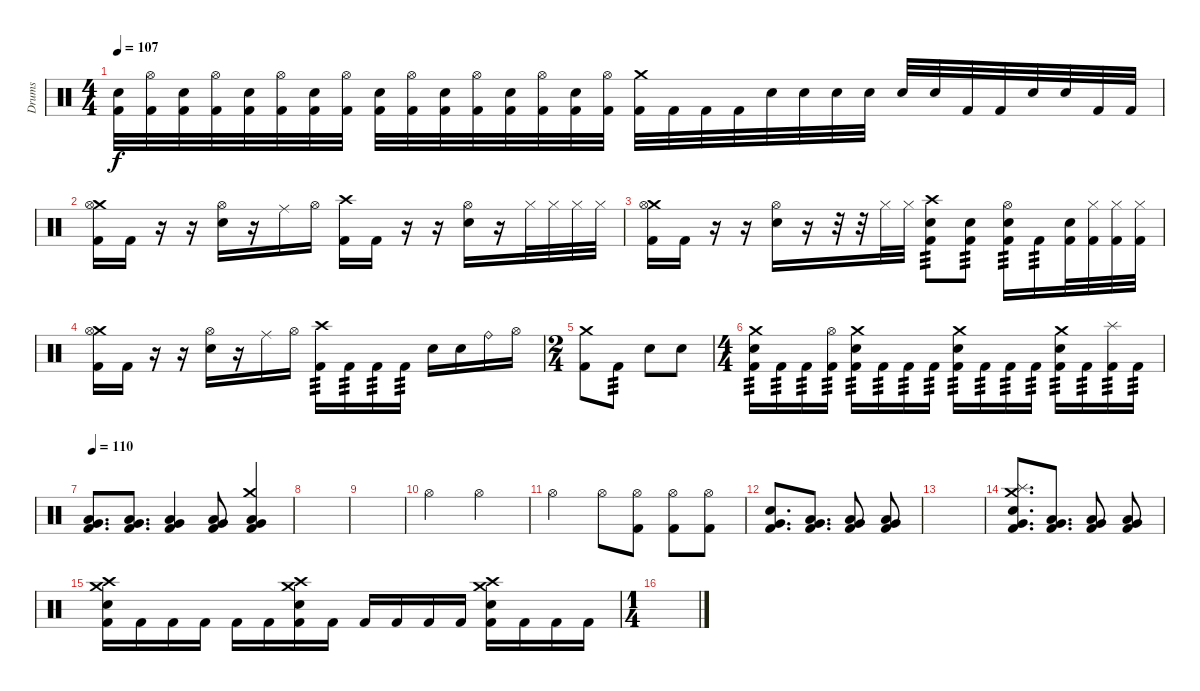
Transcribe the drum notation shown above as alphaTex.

\track ("Drums" "Drums") {instrument percussion}
\staff {score}
\articulation defaults
\ts (4 4)
\tempo 107
\clef neutral
\ks c
("Electric Snare (hit)" "Kick (hit) 2").32{dy f} ("Hi-Hat (open)" "Kick (hit) 2").32 ("Electric Snare (hit)" "Kick (hit) 2").32 ("Hi-Hat (open)" "Kick (hit) 2").32 ("Electric Snare (hit)" "Kick (hit) 2").32 ("Hi-Hat (open)" "Kick (hit) 2").32 ("Electric Snare (hit)" "Kick (hit) 2").32 ("Hi-Hat (open)" "Kick (hit) 2").32 ("Electric Snare (hit)" "Kick (hit) 2").32 ("Hi-Hat (open)" "Kick (hit) 2").32 ("Electric Snare (hit)" "Kick (hit) 2").32 ("Hi-Hat (open)" "Kick (hit) 2").32 ("Electric Snare (hit)" "Kick (hit) 2").32 ("Hi-Hat (open)" "Kick (hit) 2").32 ("Electric Snare (hit)" "Kick (hit) 2").32 ("Hi-Hat (open)" "Kick (hit) 2").32 ("Crash medium (hit)" "Kick (hit) 2").32 "Kick (hit) 2".32 "Kick (hit) 2".32 "Kick (hit) 2".32 "Electric Snare (hit)".32 "Electric Snare (hit)".32 "Electric Snare (hit)".32 "Electric Snare (hit)".32 "Electric Snare (hit)".32 "Electric Snare (hit)".32 "Kick (hit) 2".32 "Kick (hit) 2".32 "Electric Snare (hit)".32 "Electric Snare (hit)".32 "Kick (hit) 2".32 "Kick (hit) 2".32 |
("Crash medium (hit)" "Hi-Hat (open)" "Kick (hit) 2").16 "Kick (hit) 2".16 r.16 r.16 ("Hi-Hat (open)" "Electric Snare (hit)").16 r.16 "Ride (middle)".16 "Hi-Hat (open)".16 ("Crash high (hit)" "Kick (hit) 2").16 "Kick (hit) 2".16 r.16 r.16 ("Hi-Hat (open)" "Electric Snare (hit)").16 r.16 "Hi-Hat (closed)".32 "Hi-Hat (closed)".32 "Hi-Hat (closed)".32 "Hi-Hat (closed)".32 |
("Crash medium (hit)" "Hi-Hat (open)" "Kick (hit) 2").16 "Kick (hit) 2".16 r.16 r.16 ("Hi-Hat (open)" "Electric Snare (hit)").16 r.16 r.32 r.32 "Hi-Hat (closed)".32 "Hi-Hat (closed)".32 ("Crash high (hit)" "Electric Snare (hit)" "Kick (hit) 2").8{tp 3} ("Electric Snare (hit)" "Kick (hit) 2").8{tp 3} ("Hi-Hat (open)" "Electric Snare (hit)" "Kick (hit) 2").16{tp 3} "Kick (hit) 2".16{tp 3} ("Electric Snare (hit)" "Kick (hit) 2").32 ("Hi-Hat (closed)" "Kick (hit) 2").32 ("Hi-Hat (closed)" "Kick (hit) 2").32 ("Hi-Hat (closed)" "Kick (hit) 2").32 |
("Crash medium (hit)" "Hi-Hat (open)" "Kick (hit) 2").16 "Kick (hit) 2".16 r.16 r.16 ("Hi-Hat (open)" "Electric Snare (hit)").16 r.16 "Ride (middle)".16 "Hi-Hat (open)".16 ("Crash high (hit)" "Kick (hit) 2").16{tp 3} "Kick (hit) 2".16{tp 3} "Kick (hit) 2".16{tp 3} "Kick (hit) 2".16{tp 3} "Electric Snare (hit)".16 "Electric Snare (hit)".16 "Ride (bell)".16 "Hi-Hat (open)".16 |
\ts (2 4)
("Crash medium (hit)" "Kick (hit) 2").8 "Kick (hit) 2".8{tp 3} "Electric Snare (hit)".8 "Electric Snare (hit)".8 |
\ts (4 4)
("Crash medium (hit)" "Electric Snare (hit)" "Kick (hit) 2").16{tp 3} "Kick (hit) 2".16{tp 3} "Kick (hit) 2".16{tp 3} ("Hi-Hat (open)" "Kick (hit) 2").16{tp 3} ("Crash medium (hit)" "Electric Snare (hit)" "Kick (hit) 2").16{tp 3} "Kick (hit) 2".16{tp 3} "Kick (hit) 2".16{tp 3} "Kick (hit) 2".16{tp 3} ("Crash medium (hit)" "Electric Snare (hit)" "Kick (hit) 2").16{tp 3} "Kick (hit) 2".16{tp 3} "Kick (hit) 2".16{tp 3} "Kick (hit) 2".16{tp 3} ("Crash medium (hit)" "Electric Snare (hit)" "Kick (hit) 2").16{tp 3} "Kick (hit) 2".16{tp 3} ("Splash (hit)" "Kick (hit) 2").16{tp 3} "Kick (hit) 2".16{tp 3} |
\tempo 110
("Very Low Tom (hit)" "Low Floor Tom (hit)" "Kick (hit) 2").8{d} ("Very Low Tom (hit)" "Low Floor Tom (hit)" "Kick (hit) 2").8{d} ("Very Low Tom (hit)" "Low Floor Tom (hit)" "Kick (hit) 2").4 ("Very Low Tom (hit)" "Low Floor Tom (hit)" "Kick (hit) 2").8 ("Crash medium (hit)" "Very Low Tom (hit)" "Low Floor Tom (hit)" "Kick (hit) 2").4 |
|
|
"Hi-Hat (open)".2 "Hi-Hat (open)".2 |
"Hi-Hat (open)".2 "Hi-Hat (open)".8 ("Hi-Hat (open)" "Kick (hit) 2").8 ("Hi-Hat (open)" "Kick (hit) 2").8 ("Hi-Hat (open)" "Kick (hit) 2").8 |
("Electric Snare (hit)" "Very Low Tom (hit)" "Kick (hit) 2").8{d} ("Very Low Tom (hit)" "Low Floor Tom (hit)" "Kick (hit) 2").8{d} ("Very Low Tom (hit)" "Low Floor Tom (hit)" "Kick (hit) 2").8 ("Very Low Tom (hit)" "Low Floor Tom (hit)" "Kick (hit) 2").8 |
|
("Splash (hit)" "Crash medium (hit)" "Electric Snare (hit)" "Very Low Tom (hit)" "Kick (hit) 2").8{d} ("Very Low Tom (hit)" "Low Floor Tom (hit)" "Kick (hit) 2").8{d} ("Very Low Tom (hit)" "Low Floor Tom (hit)" "Kick (hit) 2").8 ("Very Low Tom (hit)" "Low Floor Tom (hit)" "Kick (hit) 2").8 |
("Crash medium (hit)" "Crash high (hit)" "Electric Snare (hit)" "Kick (hit) 2").16 "Kick (hit) 2".16 "Kick (hit) 2".16 "Kick (hit) 2".16 "Kick (hit) 2".16 "Kick (hit) 2".16 ("Crash medium (hit)" "Crash high (hit)" "Electric Snare (hit)" "Kick (hit) 2").16 "Kick (hit) 2".16 "Kick (hit) 2".16 "Kick (hit) 2".16 "Kick (hit) 2".16 "Kick (hit) 2".16 ("Crash medium (hit)" "Crash high (hit)" "Electric Snare (hit)" "Kick (hit) 2").16 "Kick (hit) 2".16 "Kick (hit) 2".16 "Kick (hit) 2".16 |
\ts (1 4)
